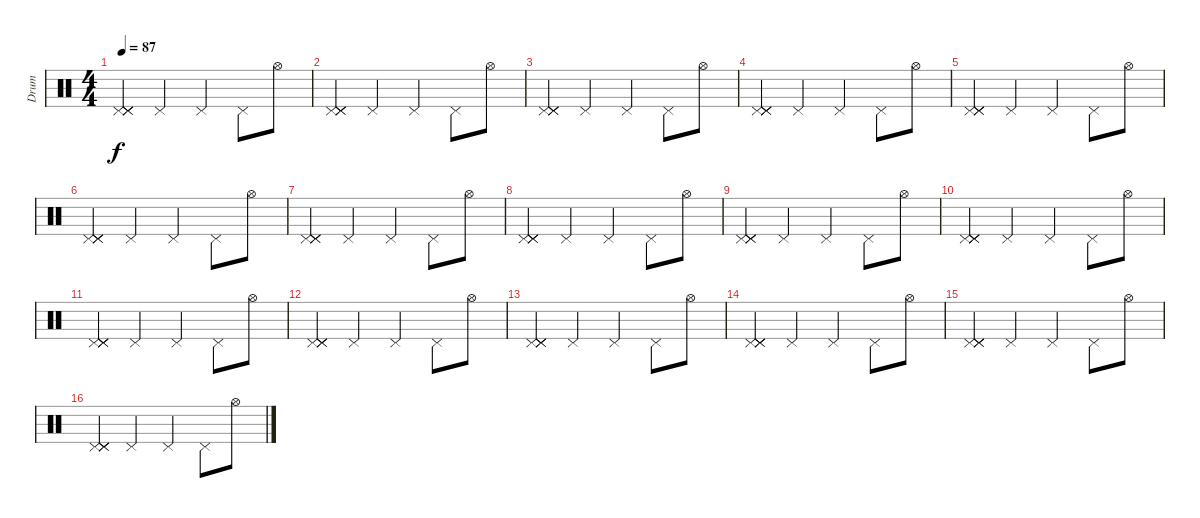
\track ("Drum" "Drum") {instrument percussion}
\staff {score}
\articulation defaults
\ts (4 4)
\tempo 87
\clef neutral
\ks c
("Pedal Hi-Hat (hit)" "Pedal Hi-Hat (hit)" "Pedal Hi-Hat (hit)" "Pedal Hi-Hat (hit)").4{dy f} "Pedal Hi-Hat (hit)".4 "Pedal Hi-Hat (hit)".4 "Pedal Hi-Hat (hit)".8 "Hi-Hat (open)".8 |
("Pedal Hi-Hat (hit)" "Pedal Hi-Hat (hit)" "Pedal Hi-Hat (hit)" "Pedal Hi-Hat (hit)").4 "Pedal Hi-Hat (hit)".4 "Pedal Hi-Hat (hit)".4 "Pedal Hi-Hat (hit)".8 "Hi-Hat (open)".8 |
("Pedal Hi-Hat (hit)" "Pedal Hi-Hat (hit)" "Pedal Hi-Hat (hit)" "Pedal Hi-Hat (hit)").4 "Pedal Hi-Hat (hit)".4 "Pedal Hi-Hat (hit)".4 "Pedal Hi-Hat (hit)".8 "Hi-Hat (open)".8 |
("Pedal Hi-Hat (hit)" "Pedal Hi-Hat (hit)" "Pedal Hi-Hat (hit)" "Pedal Hi-Hat (hit)").4 "Pedal Hi-Hat (hit)".4 "Pedal Hi-Hat (hit)".4 "Pedal Hi-Hat (hit)".8 "Hi-Hat (open)".8 |
("Pedal Hi-Hat (hit)" "Pedal Hi-Hat (hit)" "Pedal Hi-Hat (hit)" "Pedal Hi-Hat (hit)").4 "Pedal Hi-Hat (hit)".4 "Pedal Hi-Hat (hit)".4 "Pedal Hi-Hat (hit)".8 "Hi-Hat (open)".8 |
("Pedal Hi-Hat (hit)" "Pedal Hi-Hat (hit)" "Pedal Hi-Hat (hit)" "Pedal Hi-Hat (hit)").4 "Pedal Hi-Hat (hit)".4 "Pedal Hi-Hat (hit)".4 "Pedal Hi-Hat (hit)".8 "Hi-Hat (open)".8 |
("Pedal Hi-Hat (hit)" "Pedal Hi-Hat (hit)" "Pedal Hi-Hat (hit)" "Pedal Hi-Hat (hit)").4 "Pedal Hi-Hat (hit)".4 "Pedal Hi-Hat (hit)".4 "Pedal Hi-Hat (hit)".8 "Hi-Hat (open)".8 |
("Pedal Hi-Hat (hit)" "Pedal Hi-Hat (hit)" "Pedal Hi-Hat (hit)" "Pedal Hi-Hat (hit)").4 "Pedal Hi-Hat (hit)".4 "Pedal Hi-Hat (hit)".4 "Pedal Hi-Hat (hit)".8 "Hi-Hat (open)".8 |
("Pedal Hi-Hat (hit)" "Pedal Hi-Hat (hit)" "Pedal Hi-Hat (hit)" "Pedal Hi-Hat (hit)").4 "Pedal Hi-Hat (hit)".4 "Pedal Hi-Hat (hit)".4 "Pedal Hi-Hat (hit)".8 "Hi-Hat (open)".8 |
("Pedal Hi-Hat (hit)" "Pedal Hi-Hat (hit)" "Pedal Hi-Hat (hit)" "Pedal Hi-Hat (hit)").4 "Pedal Hi-Hat (hit)".4 "Pedal Hi-Hat (hit)".4 "Pedal Hi-Hat (hit)".8 "Hi-Hat (open)".8 |
("Pedal Hi-Hat (hit)" "Pedal Hi-Hat (hit)" "Pedal Hi-Hat (hit)" "Pedal Hi-Hat (hit)").4 "Pedal Hi-Hat (hit)".4 "Pedal Hi-Hat (hit)".4 "Pedal Hi-Hat (hit)".8 "Hi-Hat (open)".8 |
("Pedal Hi-Hat (hit)" "Pedal Hi-Hat (hit)" "Pedal Hi-Hat (hit)" "Pedal Hi-Hat (hit)").4 "Pedal Hi-Hat (hit)".4 "Pedal Hi-Hat (hit)".4 "Pedal Hi-Hat (hit)".8 "Hi-Hat (open)".8 |
("Pedal Hi-Hat (hit)" "Pedal Hi-Hat (hit)" "Pedal Hi-Hat (hit)" "Pedal Hi-Hat (hit)").4 "Pedal Hi-Hat (hit)".4 "Pedal Hi-Hat (hit)".4 "Pedal Hi-Hat (hit)".8 "Hi-Hat (open)".8 |
("Pedal Hi-Hat (hit)" "Pedal Hi-Hat (hit)" "Pedal Hi-Hat (hit)" "Pedal Hi-Hat (hit)").4 "Pedal Hi-Hat (hit)".4 "Pedal Hi-Hat (hit)".4 "Pedal Hi-Hat (hit)".8 "Hi-Hat (open)".8 |
("Pedal Hi-Hat (hit)" "Pedal Hi-Hat (hit)" "Pedal Hi-Hat (hit)" "Pedal Hi-Hat (hit)").4 "Pedal Hi-Hat (hit)".4 "Pedal Hi-Hat (hit)".4 "Pedal Hi-Hat (hit)".8 "Hi-Hat (open)".8 |
("Pedal Hi-Hat (hit)" "Pedal Hi-Hat (hit)" "Pedal Hi-Hat (hit)" "Pedal Hi-Hat (hit)").4 "Pedal Hi-Hat (hit)".4 "Pedal Hi-Hat (hit)".4 "Pedal Hi-Hat (hit)".8 "Hi-Hat (open)".8
